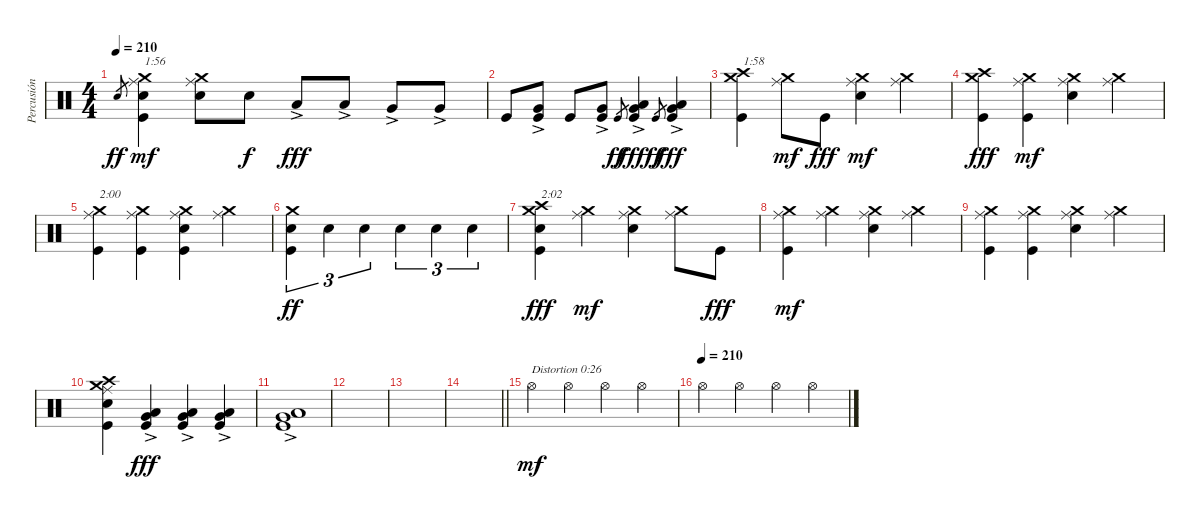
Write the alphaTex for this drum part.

\track ("Percusión" "Percusión") {instrument percussion}
\staff {score}
\articulation defaults
\ts (4 4)
\tempo 210
\clef neutral
\ks c "Electric Snare (hit)".8{gr dy ff}
("Kick (hit)" "Electric Snare (hit)" "Ride (middle)" "Crash medium (hit)").4{txt "1:56" dy mf} ("Electric Snare (hit)" "Ride (middle)" "Crash medium (hit)").8 "Electric Snare (hit)".8{dy f} "Low Tom (hit)"{ac}.8{dy fff} "Low Tom (hit)"{ac}.8 "Very Low Tom (hit)"{ac}.8 "Very Low Tom (hit)"{ac}.8 |
"Kick (hit)".8 ("Kick (hit)" "Very Low Tom (hit)"{ac}).8 "Kick (hit)".8 ("Kick (hit)" "Very Low Tom (hit)"{ac}).8 "Kick (hit)".8{gr dy ff} ("Kick (hit)" "Very Low Tom (hit)"{ac} "Low Tom (hit)"{ac}).4{dy fff} "Kick (hit)".8{gr dy ff} ("Kick (hit)" "Very Low Tom (hit)"{ac} "Low Tom (hit)"{ac}).4{dy fff} |
("Kick (hit)" "Crash medium (hit)" "Crash high (hit)").4{txt "1:58"} ("Ride (middle)" "Crash medium (hit)").8{dy mf} "Kick (hit)".8{dy fff} ("Electric Snare (hit)" "Ride (middle)" "Crash medium (hit)").4{dy mf} ("Ride (middle)" "Crash medium (hit)").4 |
("Kick (hit)" "Crash medium (hit)" "Crash high (hit)").4{dy fff} ("Kick (hit)" "Ride (middle)" "Crash medium (hit)").4{dy mf} ("Electric Snare (hit)" "Ride (middle)" "Crash medium (hit)").4 ("Ride (middle)" "Crash medium (hit)").4 |
("Kick (hit)" "Ride (middle)" "Crash medium (hit)").4{txt "2:00"} ("Kick (hit)" "Ride (middle)" "Crash medium (hit)").4 ("Kick (hit)" "Electric Snare (hit)" "Ride (middle)" "Crash medium (hit)").4 ("Ride (middle)" "Crash medium (hit)").4 |
("Kick (hit)" "Electric Snare (hit)" "Crash medium (hit)").4{tu (3 2) dy ff} "Electric Snare (hit)".4{tu (3 2)} "Electric Snare (hit)".4{tu (3 2)} "Electric Snare (hit)".4{tu (3 2)} "Electric Snare (hit)".4{tu (3 2)} "Electric Snare (hit)".4{tu (3 2)} |
("Kick (hit)" "Electric Snare (hit)" "Crash medium (hit)" "Crash high (hit)").4{txt "2:02" dy fff} ("Ride (middle)" "Crash medium (hit)").4{dy mf} ("Electric Snare (hit)" "Ride (middle)" "Crash medium (hit)").4 ("Ride (middle)" "Crash medium (hit)").8 "Kick (hit)".8{dy fff} |
("Kick (hit)" "Ride (middle)" "Crash medium (hit)").4{dy mf} ("Ride (middle)" "Crash medium (hit)").4 ("Electric Snare (hit)" "Ride (middle)" "Crash medium (hit)").4 ("Ride (middle)" "Crash medium (hit)").4 |
("Kick (hit)" "Ride (middle)" "Crash medium (hit)").4 ("Kick (hit)" "Ride (middle)" "Crash medium (hit)").4 ("Electric Snare (hit)" "Ride (middle)" "Crash medium (hit)").4 ("Ride (middle)" "Crash medium (hit)").4 |
("Kick (hit)" "Electric Snare (hit)" "Ride (middle)" "Crash medium (hit)" "Crash high (hit)").4 ("Kick (hit)" "Very Low Tom (hit)"{ac} "Low Floor Tom (hit)"{ac}).4{dy fff} ("Kick (hit)" "Very Low Tom (hit)"{ac} "Low Tom (hit)"{ac}).4 ("Kick (hit)" "Very Low Tom (hit)"{ac} "Low Tom (hit)"{ac}).4 |
("Kick (hit)" "Very Low Tom (hit)"{ac} "Low Tom (hit)"{ac}).1 |
|
|
\barLineRight lightlight
|
"Hi-Hat (open)".4{txt "Distortion 0:26" dy mf} "Hi-Hat (open)".4 "Hi-Hat (open)".4 "Hi-Hat (open)".4 |
\tempo (210)
"Hi-Hat (open)".4 "Hi-Hat (open)".4 "Hi-Hat (open)".4 "Hi-Hat (open)".4
